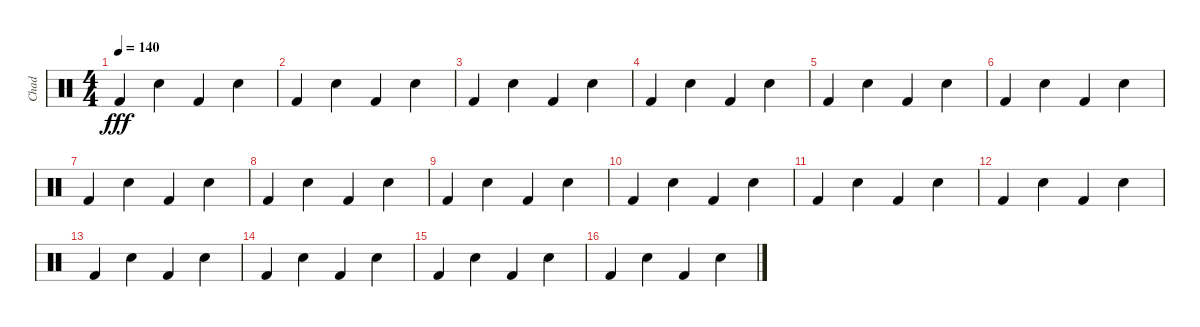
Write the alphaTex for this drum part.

\track ("Chad" "Chad") {instrument percussion}
\staff {score}
\articulation defaults
\ts (4 4)
\tempo 140
\clef neutral
\ks c "Kick (hit) 2".4{dy fff} "Electric Snare (hit)".4 "Kick (hit) 2".4 "Electric Snare (hit)".4
|
"Kick (hit) 2".4 "Electric Snare (hit)".4 "Kick (hit) 2".4 "Electric Snare (hit)".4 |
"Kick (hit) 2".4 "Electric Snare (hit)".4 "Kick (hit) 2".4 "Electric Snare (hit)".4 |
"Kick (hit) 2".4 "Electric Snare (hit)".4 "Kick (hit) 2".4 "Electric Snare (hit)".4 |
"Kick (hit) 2".4 "Electric Snare (hit)".4 "Kick (hit) 2".4 "Electric Snare (hit)".4 |
"Kick (hit) 2".4 "Electric Snare (hit)".4 "Kick (hit) 2".4 "Electric Snare (hit)".4 |
"Kick (hit) 2".4 "Electric Snare (hit)".4 "Kick (hit) 2".4 "Electric Snare (hit)".4 |
"Kick (hit) 2".4 "Electric Snare (hit)".4 "Kick (hit) 2".4 "Electric Snare (hit)".4 |
"Kick (hit) 2".4 "Electric Snare (hit)".4 "Kick (hit) 2".4 "Electric Snare (hit)".4 |
"Kick (hit) 2".4 "Electric Snare (hit)".4 "Kick (hit) 2".4 "Electric Snare (hit)".4 |
"Kick (hit) 2".4 "Electric Snare (hit)".4 "Kick (hit) 2".4 "Electric Snare (hit)".4 |
"Kick (hit) 2".4 "Electric Snare (hit)".4 "Kick (hit) 2".4 "Electric Snare (hit)".4 |
"Kick (hit) 2".4 "Electric Snare (hit)".4 "Kick (hit) 2".4 "Electric Snare (hit)".4 |
"Kick (hit) 2".4 "Electric Snare (hit)".4 "Kick (hit) 2".4 "Electric Snare (hit)".4 |
"Kick (hit) 2".4 "Electric Snare (hit)".4 "Kick (hit) 2".4 "Electric Snare (hit)".4 |
"Kick (hit) 2".4 "Electric Snare (hit)".4 "Kick (hit) 2".4 "Electric Snare (hit)".4
